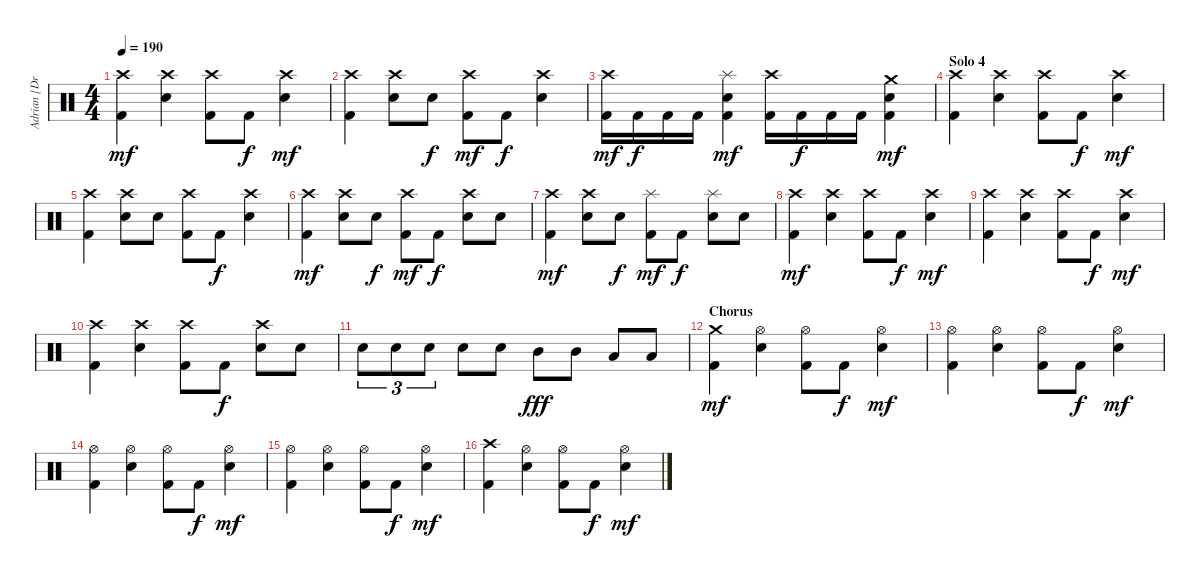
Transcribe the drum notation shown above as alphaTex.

\track ("Adrian [Drums]" "Adrian [Dr") {instrument percussion}
\staff {score}
\articulation defaults
\ts (4 4)
\tempo 190
\clef neutral
\ks c
("Crash high (hit)" "Kick (hit) 2").4{dy mf} ("Crash high (hit)" "Electric Snare (hit)").4 ("Crash high (hit)" "Kick (hit) 2").8 "Kick (hit) 2".8{dy f} ("Crash high (hit)" "Electric Snare (hit)").4{dy mf} |
("Crash high (hit)" "Kick (hit) 2").4 ("Crash high (hit)" "Electric Snare (hit)").8 "Electric Snare (hit)".8{dy f} ("Crash high (hit)" "Kick (hit) 2").8{dy mf} "Kick (hit) 2".8{dy f} ("Crash high (hit)" "Electric Snare (hit)").4 |
("Crash high (hit)" "Kick (hit) 2").16{dy mf} "Kick (hit) 2".16{dy f} "Kick (hit) 2".16 "Kick (hit) 2".16 ("Splash (hit)" "Electric Snare (hit)" "Kick (hit) 2").4{dy mf} ("Crash high (hit)" "Kick (hit) 2").16 "Kick (hit) 2".16{dy f} "Kick (hit) 2".16 "Kick (hit) 2".16 ("Crash medium (hit)" "Electric Snare (hit)" "Kick (hit) 2").4{dy mf} |
\section ("" "Solo 4")
("Crash high (hit)" "Kick (hit) 2").4 ("Crash high (hit)" "Electric Snare (hit)").4 ("Crash high (hit)" "Kick (hit) 2").8 "Kick (hit) 2".8{dy f} ("Crash high (hit)" "Electric Snare (hit)").4{dy mf} |
("Crash high (hit)" "Kick (hit) 2").4 ("Crash high (hit)" "Electric Snare (hit)").8 "Electric Snare (hit)".8 ("Crash high (hit)" "Kick (hit) 2").8 "Kick (hit) 2".8{dy f} ("Crash high (hit)" "Electric Snare (hit)").4 |
("Crash high (hit)" "Kick (hit) 2").4{dy mf} ("Crash high (hit)" "Electric Snare (hit)").8 "Electric Snare (hit)".8{dy f} ("Crash high (hit)" "Kick (hit) 2").8{dy mf} "Kick (hit) 2".8{dy f} ("Crash high (hit)" "Electric Snare (hit)").8 "Electric Snare (hit)".8 |
("Crash high (hit)" "Kick (hit) 2").4{dy mf} ("Crash high (hit)" "Electric Snare (hit)").8 "Electric Snare (hit)".8{dy f} ("Splash (hit)" "Kick (hit) 2").8{dy mf} "Kick (hit) 2".8{dy f} ("Splash (hit)" "Electric Snare (hit)").8 "Electric Snare (hit)".8 |
("Crash high (hit)" "Kick (hit) 2").4{dy mf} ("Crash high (hit)" "Electric Snare (hit)").4 ("Crash high (hit)" "Kick (hit) 2").8 "Kick (hit) 2".8{dy f} ("Crash high (hit)" "Electric Snare (hit)").4{dy mf} |
("Crash high (hit)" "Kick (hit) 2").4 ("Crash high (hit)" "Electric Snare (hit)").4 ("Crash high (hit)" "Kick (hit) 2").8 "Kick (hit) 2".8{dy f} ("Crash high (hit)" "Electric Snare (hit)").4{dy mf} |
("Crash high (hit)" "Kick (hit) 2").4 ("Crash high (hit)" "Electric Snare (hit)").4 ("Crash high (hit)" "Kick (hit) 2").8 "Kick (hit) 2".8{dy f} ("Crash high (hit)" "Electric Snare (hit)").8 "Electric Snare (hit)".8 |
"Electric Snare (hit)".8{tu (3 2)} "Electric Snare (hit)".8{tu (3 2)} "Electric Snare (hit)".8{tu (3 2)} "Electric Snare (hit)".8 "Electric Snare (hit)".8 "Mid Tom (hit)".8{dy fff} "Mid Tom (hit)".8 "Low Tom (hit)".8 "Low Tom (hit)".8 |
\section ("" "Chorus")
("Crash medium (hit)" "Kick (hit) 2").4{dy mf} ("Hi-Hat (open)" "Electric Snare (hit)").4 ("Hi-Hat (open)" "Kick (hit) 2").8 "Kick (hit) 2".8{dy f} ("Hi-Hat (open)" "Electric Snare (hit)").4{dy mf} |
("Hi-Hat (open)" "Kick (hit) 2").4 ("Hi-Hat (open)" "Electric Snare (hit)").4 ("Hi-Hat (open)" "Kick (hit) 2").8 "Kick (hit) 2".8{dy f} ("Hi-Hat (open)" "Electric Snare (hit)").4{dy mf} |
("Hi-Hat (open)" "Kick (hit) 2").4 ("Hi-Hat (open)" "Electric Snare (hit)").4 ("Hi-Hat (open)" "Kick (hit) 2").8 "Kick (hit) 2".8{dy f} ("Hi-Hat (open)" "Electric Snare (hit)").4{dy mf} |
("Hi-Hat (open)" "Kick (hit) 2").4 ("Hi-Hat (open)" "Electric Snare (hit)").4 ("Hi-Hat (open)" "Kick (hit) 2").8 "Kick (hit) 2".8{dy f} ("Hi-Hat (open)" "Electric Snare (hit)").4{dy mf} |
("Crash high (hit)" "Kick (hit) 2").4 ("Hi-Hat (open)" "Electric Snare (hit)").4 ("Hi-Hat (open)" "Kick (hit) 2").8 "Kick (hit) 2".8{dy f} ("Hi-Hat (open)" "Electric Snare (hit)").4{dy mf}
